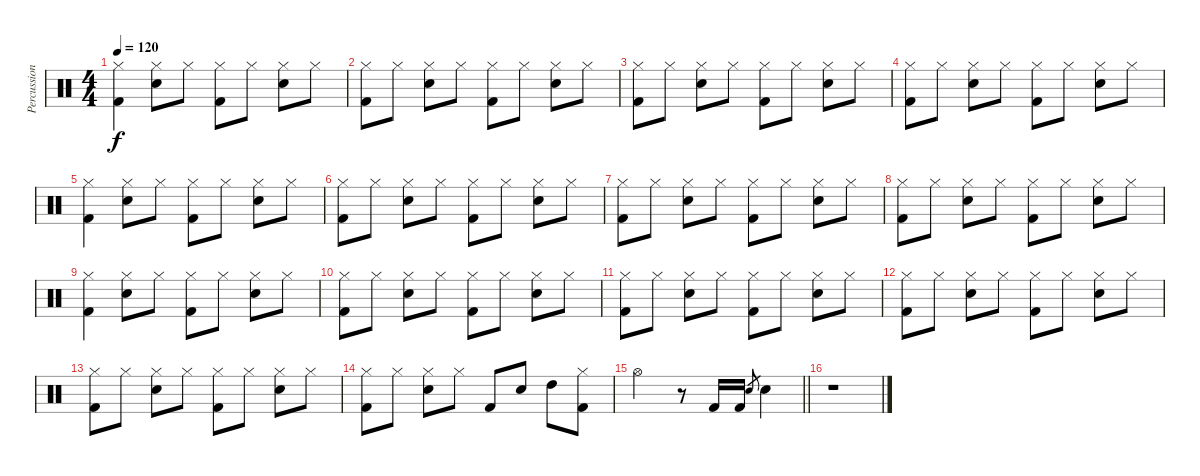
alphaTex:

\track ("Percussion" "Percussion") {instrument percussion}
\staff {score}
\articulation defaults
\ts (4 4)
\tempo 120
\clef neutral
\ks c
("Hi-Hat (closed)" "Kick (hit) 2").4{dy f} ("Hi-Hat (closed)" "Snare (hit) 2").8 "Hi-Hat (closed)".8 ("Hi-Hat (closed)" "Kick (hit) 2").8 "Hi-Hat (closed)".8 ("Hi-Hat (closed)" "Snare (hit) 2").8 "Hi-Hat (closed)".8 |
("Hi-Hat (closed)" "Kick (hit) 2").8 "Hi-Hat (closed)".8 ("Hi-Hat (closed)" "Snare (hit) 2").8 "Hi-Hat (closed)".8 ("Hi-Hat (closed)" "Kick (hit) 2").8 "Hi-Hat (closed)".8 ("Hi-Hat (closed)" "Snare (hit) 2").8 "Hi-Hat (closed)".8 |
("Hi-Hat (closed)" "Kick (hit) 2").8 "Hi-Hat (closed)".8 ("Hi-Hat (closed)" "Snare (hit) 2").8 "Hi-Hat (closed)".8 ("Hi-Hat (closed)" "Kick (hit) 2").8 "Hi-Hat (closed)".8 ("Hi-Hat (closed)" "Snare (hit) 2").8 "Hi-Hat (closed)".8 |
("Hi-Hat (closed)" "Kick (hit) 2").8 "Hi-Hat (closed)".8 ("Hi-Hat (closed)" "Snare (hit) 2").8 "Hi-Hat (closed)".8 ("Hi-Hat (closed)" "Kick (hit) 2").8 "Hi-Hat (closed)".8 ("Hi-Hat (closed)" "Snare (hit) 2").8 "Hi-Hat (closed)".8 |
("Hi-Hat (closed)" "Kick (hit) 2").4 ("Hi-Hat (closed)" "Snare (hit) 2").8 "Hi-Hat (closed)".8 ("Hi-Hat (closed)" "Kick (hit) 2").8 "Hi-Hat (closed)".8 ("Hi-Hat (closed)" "Snare (hit) 2").8 "Hi-Hat (closed)".8 |
("Hi-Hat (closed)" "Kick (hit) 2").8 "Hi-Hat (closed)".8 ("Hi-Hat (closed)" "Snare (hit) 2").8 "Hi-Hat (closed)".8 ("Hi-Hat (closed)" "Kick (hit) 2").8 "Hi-Hat (closed)".8 ("Hi-Hat (closed)" "Snare (hit) 2").8 "Hi-Hat (closed)".8 |
("Hi-Hat (closed)" "Kick (hit) 2").8 "Hi-Hat (closed)".8 ("Hi-Hat (closed)" "Snare (hit) 2").8 "Hi-Hat (closed)".8 ("Hi-Hat (closed)" "Kick (hit) 2").8 "Hi-Hat (closed)".8 ("Hi-Hat (closed)" "Snare (hit) 2").8 "Hi-Hat (closed)".8 |
("Hi-Hat (closed)" "Kick (hit) 2").8 "Hi-Hat (closed)".8 ("Hi-Hat (closed)" "Snare (hit) 2").8 "Hi-Hat (closed)".8 ("Hi-Hat (closed)" "Kick (hit) 2").8 "Hi-Hat (closed)".8 ("Hi-Hat (closed)" "Snare (hit) 2").8 "Hi-Hat (closed)".8 |
("Hi-Hat (closed)" "Kick (hit) 2").4 ("Hi-Hat (closed)" "Snare (hit) 2").8 "Hi-Hat (closed)".8 ("Hi-Hat (closed)" "Kick (hit) 2").8 "Hi-Hat (closed)".8 ("Hi-Hat (closed)" "Snare (hit) 2").8 "Hi-Hat (closed)".8 |
("Hi-Hat (closed)" "Kick (hit) 2").8 "Hi-Hat (closed)".8 ("Hi-Hat (closed)" "Snare (hit) 2").8 "Hi-Hat (closed)".8 ("Hi-Hat (closed)" "Kick (hit) 2").8 "Hi-Hat (closed)".8 ("Hi-Hat (closed)" "Snare (hit) 2").8 "Hi-Hat (closed)".8 |
("Hi-Hat (closed)" "Kick (hit) 2").8 "Hi-Hat (closed)".8 ("Hi-Hat (closed)" "Snare (hit) 2").8 "Hi-Hat (closed)".8 ("Hi-Hat (closed)" "Kick (hit) 2").8 "Hi-Hat (closed)".8 ("Hi-Hat (closed)" "Snare (hit) 2").8 "Hi-Hat (closed)".8 |
("Hi-Hat (closed)" "Kick (hit) 2").8 "Hi-Hat (closed)".8 ("Hi-Hat (closed)" "Snare (hit) 2").8 "Hi-Hat (closed)".8 ("Hi-Hat (closed)" "Kick (hit) 2").8 "Hi-Hat (closed)".8 ("Hi-Hat (closed)" "Snare (hit) 2").8 "Hi-Hat (closed)".8 |
("Hi-Hat (closed)" "Kick (hit) 2").8 "Hi-Hat (closed)".8 ("Hi-Hat (closed)" "Snare (hit) 2").8 "Hi-Hat (closed)".8 ("Hi-Hat (closed)" "Kick (hit) 2").8 "Hi-Hat (closed)".8 ("Hi-Hat (closed)" "Snare (hit) 2").8 "Hi-Hat (closed)".8 |
("Hi-Hat (closed)" "Kick (hit) 2").8 "Hi-Hat (closed)".8 ("Hi-Hat (closed)" "Snare (hit) 2").8 "Hi-Hat (closed)".8 "Kick (hit) 2".8 "Snare (hit) 2".8 "High Tom (hit)".8 ("Hi-Hat (closed)" "Kick (hit) 2").8 |
\barLineRight lightlight "Hi-Hat (open)".2
r.8 "Kick (hit) 2".16 "Kick (hit) 2".16 "Snare (hit) 2".8{gr} "Snare (hit) 2".4 |
r.1
